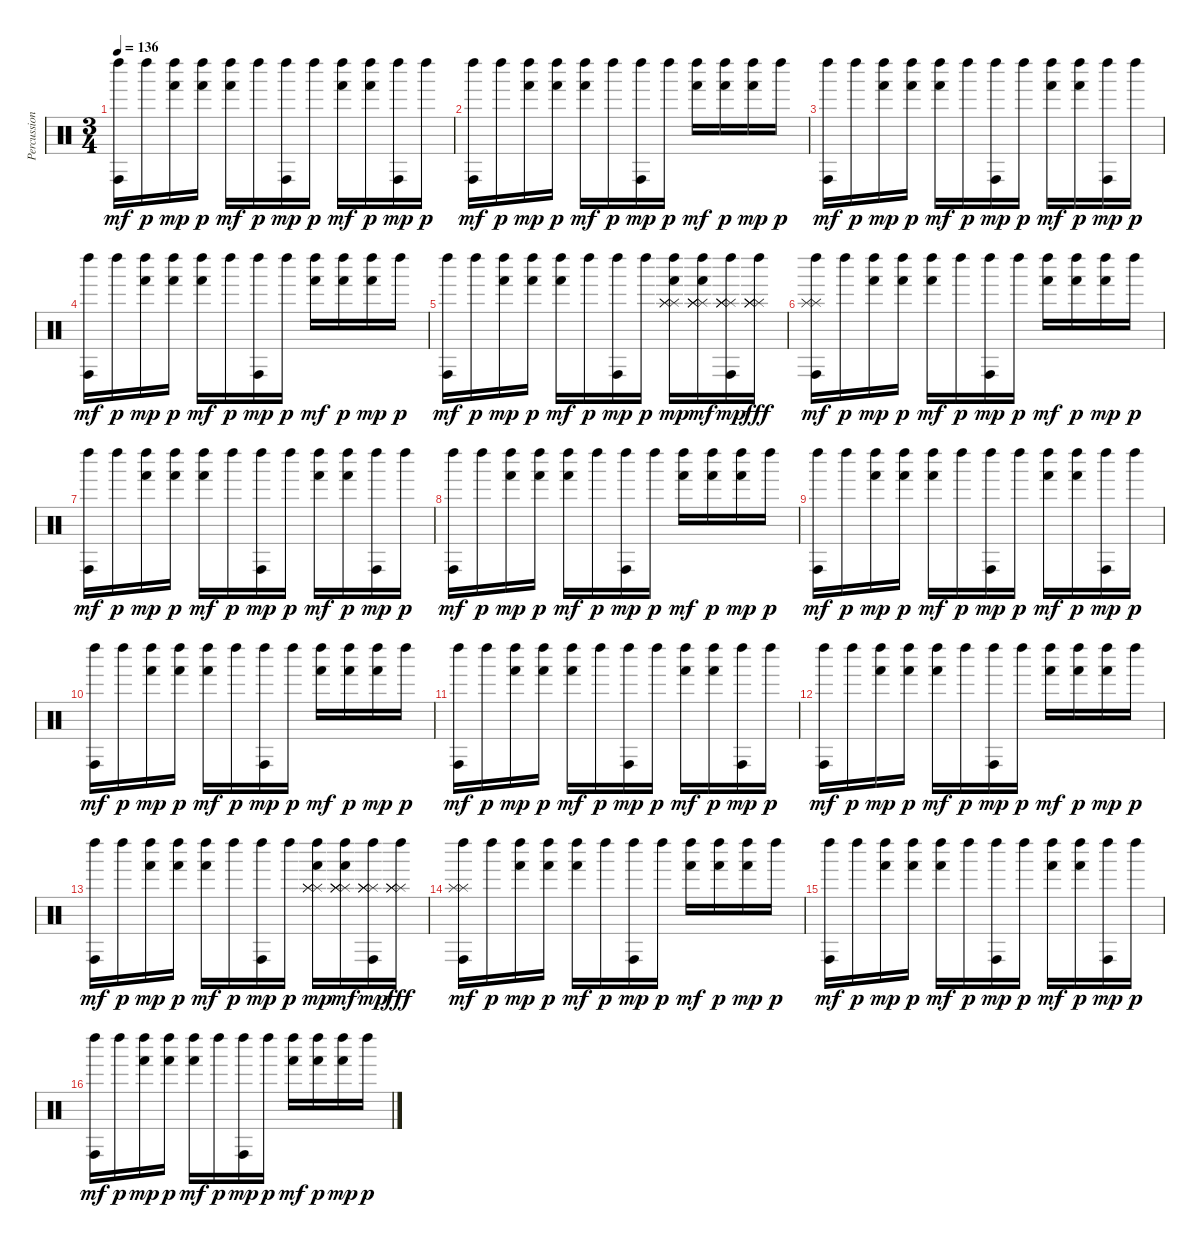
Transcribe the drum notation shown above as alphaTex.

\track ("Percussion" "Percussion") {instrument percussion}
\staff {score}
\articulation defaults
\ts (3 4)
\tempo 136
\clef neutral
\ks c
("Conga high (hit)" "Left Maraca (hit)").16{dy mf} "Left Maraca (hit)".16{dy p} ("Hand (hit)" "Left Maraca (hit)").16{dy mp} ("Hand (hit)" "Left Maraca (hit)").16{dy p} ("Hand (hit)" "Left Maraca (hit)").16{dy mf} "Left Maraca (hit)".16{dy p} ("Conga high (hit)" "Left Maraca (hit)").16{dy mp} "Left Maraca (hit)".16{dy p} ("Hand (hit)" "Left Maraca (hit)").16{dy mf} ("Hand (hit)" "Left Maraca (hit)").16{dy p} ("Conga high (hit)" "Left Maraca (hit)").16{dy mp} "Left Maraca (hit)".16{dy p} |
("Conga high (hit)" "Left Maraca (hit)").16{dy mf} "Left Maraca (hit)".16{dy p} ("Hand (hit)" "Left Maraca (hit)").16{dy mp} ("Hand (hit)" "Left Maraca (hit)").16{dy p} ("Hand (hit)" "Left Maraca (hit)").16{dy mf} "Left Maraca (hit)".16{dy p} ("Conga high (hit)" "Left Maraca (hit)").16{dy mp} "Left Maraca (hit)".16{dy p} ("Hand (hit)" "Left Maraca (hit)").16{dy mf} ("Hand (hit)" "Left Maraca (hit)").16{dy p} ("Hand (hit)" "Left Maraca (hit)").16{dy mp} "Left Maraca (hit)".16{dy p} |
("Conga high (hit)" "Left Maraca (hit)").16{dy mf} "Left Maraca (hit)".16{dy p} ("Hand (hit)" "Left Maraca (hit)").16{dy mp} ("Hand (hit)" "Left Maraca (hit)").16{dy p} ("Hand (hit)" "Left Maraca (hit)").16{dy mf} "Left Maraca (hit)".16{dy p} ("Conga high (hit)" "Left Maraca (hit)").16{dy mp} "Left Maraca (hit)".16{dy p} ("Hand (hit)" "Left Maraca (hit)").16{dy mf} ("Hand (hit)" "Left Maraca (hit)").16{dy p} ("Conga high (hit)" "Left Maraca (hit)").16{dy mp} "Left Maraca (hit)".16{dy p} |
("Conga high (hit)" "Left Maraca (hit)").16{dy mf} "Left Maraca (hit)".16{dy p} ("Hand (hit)" "Left Maraca (hit)").16{dy mp} ("Hand (hit)" "Left Maraca (hit)").16{dy p} ("Hand (hit)" "Left Maraca (hit)").16{dy mf} "Left Maraca (hit)".16{dy p} ("Conga high (hit)" "Left Maraca (hit)").16{dy mp} "Left Maraca (hit)".16{dy p} ("Hand (hit)" "Left Maraca (hit)").16{dy mf} ("Hand (hit)" "Left Maraca (hit)").16{dy p} ("Hand (hit)" "Left Maraca (hit)").16{dy mp} "Left Maraca (hit)".16{dy p} |
("Conga high (hit)" "Left Maraca (hit)").16{dy mf} "Left Maraca (hit)".16{dy p} ("Hand (hit)" "Left Maraca (hit)").16{dy mp} ("Hand (hit)" "Left Maraca (hit)").16{dy p} ("Hand (hit)" "Left Maraca (hit)").16{dy mf} "Left Maraca (hit)".16{dy p} ("Conga high (hit)" "Left Maraca (hit)").16{dy mp} "Left Maraca (hit)".16{dy p} ("Hand (hit)" "Splash (hit)" "Left Maraca (hit)" "Splash (hit)" "Splash (hit)").16{dy mp} ("Splash (hit)" "Hand (hit)" "Splash (hit)" "Left Maraca (hit)" "Splash (hit)" "Splash (hit)").16{dy mf} ("Splash (hit)" "Conga high (hit)" "Splash (hit)" "Left Maraca (hit)" "Splash (hit)" "Splash (hit)").16{dy mp} ("Splash (hit)" "Splash (hit)" "Left Maraca (hit)" "Splash (hit)" "Splash (hit)").16{dy fff} |
("Splash (hit)" "Splash (hit)" "Conga high (hit)" "Left Maraca (hit)").16{dy mf} "Left Maraca (hit)".16{dy p} ("Hand (hit)" "Left Maraca (hit)").16{dy mp} ("Hand (hit)" "Left Maraca (hit)").16{dy p} ("Hand (hit)" "Left Maraca (hit)").16{dy mf} "Left Maraca (hit)".16{dy p} ("Conga high (hit)" "Left Maraca (hit)").16{dy mp} "Left Maraca (hit)".16{dy p} ("Hand (hit)" "Left Maraca (hit)").16{dy mf} ("Hand (hit)" "Left Maraca (hit)").16{dy p} ("Hand (hit)" "Left Maraca (hit)").16{dy mp} "Left Maraca (hit)".16{dy p} |
("Conga high (hit)" "Left Maraca (hit)").16{dy mf} "Left Maraca (hit)".16{dy p} ("Hand (hit)" "Left Maraca (hit)").16{dy mp} ("Hand (hit)" "Left Maraca (hit)").16{dy p} ("Hand (hit)" "Left Maraca (hit)").16{dy mf} "Left Maraca (hit)".16{dy p} ("Conga high (hit)" "Left Maraca (hit)").16{dy mp} "Left Maraca (hit)".16{dy p} ("Hand (hit)" "Left Maraca (hit)").16{dy mf} ("Hand (hit)" "Left Maraca (hit)").16{dy p} ("Conga high (hit)" "Left Maraca (hit)").16{dy mp} "Left Maraca (hit)".16{dy p} |
("Conga high (hit)" "Left Maraca (hit)").16{dy mf} "Left Maraca (hit)".16{dy p} ("Hand (hit)" "Left Maraca (hit)").16{dy mp} ("Hand (hit)" "Left Maraca (hit)").16{dy p} ("Hand (hit)" "Left Maraca (hit)").16{dy mf} "Left Maraca (hit)".16{dy p} ("Conga high (hit)" "Left Maraca (hit)").16{dy mp} "Left Maraca (hit)".16{dy p} ("Hand (hit)" "Left Maraca (hit)").16{dy mf} ("Hand (hit)" "Left Maraca (hit)").16{dy p} ("Hand (hit)" "Left Maraca (hit)").16{dy mp} "Left Maraca (hit)".16{dy p} |
("Conga high (hit)" "Left Maraca (hit)").16{dy mf} "Left Maraca (hit)".16{dy p} ("Hand (hit)" "Left Maraca (hit)").16{dy mp} ("Hand (hit)" "Left Maraca (hit)").16{dy p} ("Hand (hit)" "Left Maraca (hit)").16{dy mf} "Left Maraca (hit)".16{dy p} ("Conga high (hit)" "Left Maraca (hit)").16{dy mp} "Left Maraca (hit)".16{dy p} ("Hand (hit)" "Left Maraca (hit)").16{dy mf} ("Hand (hit)" "Left Maraca (hit)").16{dy p} ("Conga high (hit)" "Left Maraca (hit)").16{dy mp} "Left Maraca (hit)".16{dy p} |
("Conga high (hit)" "Left Maraca (hit)").16{dy mf} "Left Maraca (hit)".16{dy p} ("Hand (hit)" "Left Maraca (hit)").16{dy mp} ("Hand (hit)" "Left Maraca (hit)").16{dy p} ("Hand (hit)" "Left Maraca (hit)").16{dy mf} "Left Maraca (hit)".16{dy p} ("Conga high (hit)" "Left Maraca (hit)").16{dy mp} "Left Maraca (hit)".16{dy p} ("Hand (hit)" "Left Maraca (hit)").16{dy mf} ("Hand (hit)" "Left Maraca (hit)").16{dy p} ("Hand (hit)" "Left Maraca (hit)").16{dy mp} "Left Maraca (hit)".16{dy p} |
("Conga high (hit)" "Left Maraca (hit)").16{dy mf} "Left Maraca (hit)".16{dy p} ("Hand (hit)" "Left Maraca (hit)").16{dy mp} ("Hand (hit)" "Left Maraca (hit)").16{dy p} ("Hand (hit)" "Left Maraca (hit)").16{dy mf} "Left Maraca (hit)".16{dy p} ("Conga high (hit)" "Left Maraca (hit)").16{dy mp} "Left Maraca (hit)".16{dy p} ("Hand (hit)" "Left Maraca (hit)").16{dy mf} ("Hand (hit)" "Left Maraca (hit)").16{dy p} ("Conga high (hit)" "Left Maraca (hit)").16{dy mp} "Left Maraca (hit)".16{dy p} |
("Conga high (hit)" "Left Maraca (hit)").16{dy mf} "Left Maraca (hit)".16{dy p} ("Hand (hit)" "Left Maraca (hit)").16{dy mp} ("Hand (hit)" "Left Maraca (hit)").16{dy p} ("Hand (hit)" "Left Maraca (hit)").16{dy mf} "Left Maraca (hit)".16{dy p} ("Conga high (hit)" "Left Maraca (hit)").16{dy mp} "Left Maraca (hit)".16{dy p} ("Hand (hit)" "Left Maraca (hit)").16{dy mf} ("Hand (hit)" "Left Maraca (hit)").16{dy p} ("Hand (hit)" "Left Maraca (hit)").16{dy mp} "Left Maraca (hit)".16{dy p} |
("Conga high (hit)" "Left Maraca (hit)").16{dy mf} "Left Maraca (hit)".16{dy p} ("Hand (hit)" "Left Maraca (hit)").16{dy mp} ("Hand (hit)" "Left Maraca (hit)").16{dy p} ("Hand (hit)" "Left Maraca (hit)").16{dy mf} "Left Maraca (hit)".16{dy p} ("Conga high (hit)" "Left Maraca (hit)").16{dy mp} "Left Maraca (hit)".16{dy p} ("Hand (hit)" "Splash (hit)" "Left Maraca (hit)" "Splash (hit)" "Splash (hit)").16{dy mp} ("Splash (hit)" "Hand (hit)" "Splash (hit)" "Left Maraca (hit)" "Splash (hit)" "Splash (hit)").16{dy mf} ("Splash (hit)" "Conga high (hit)" "Splash (hit)" "Left Maraca (hit)" "Splash (hit)" "Splash (hit)").16{dy mp} ("Splash (hit)" "Splash (hit)" "Left Maraca (hit)" "Splash (hit)" "Splash (hit)").16{dy fff} |
("Splash (hit)" "Splash (hit)" "Conga high (hit)" "Left Maraca (hit)").16{dy mf} "Left Maraca (hit)".16{dy p} ("Hand (hit)" "Left Maraca (hit)").16{dy mp} ("Hand (hit)" "Left Maraca (hit)").16{dy p} ("Hand (hit)" "Left Maraca (hit)").16{dy mf} "Left Maraca (hit)".16{dy p} ("Conga high (hit)" "Left Maraca (hit)").16{dy mp} "Left Maraca (hit)".16{dy p} ("Hand (hit)" "Left Maraca (hit)").16{dy mf} ("Hand (hit)" "Left Maraca (hit)").16{dy p} ("Hand (hit)" "Left Maraca (hit)").16{dy mp} "Left Maraca (hit)".16{dy p} |
("Conga high (hit)" "Left Maraca (hit)").16{dy mf} "Left Maraca (hit)".16{dy p} ("Hand (hit)" "Left Maraca (hit)").16{dy mp} ("Hand (hit)" "Left Maraca (hit)").16{dy p} ("Hand (hit)" "Left Maraca (hit)").16{dy mf} "Left Maraca (hit)".16{dy p} ("Conga high (hit)" "Left Maraca (hit)").16{dy mp} "Left Maraca (hit)".16{dy p} ("Hand (hit)" "Left Maraca (hit)").16{dy mf} ("Hand (hit)" "Left Maraca (hit)").16{dy p} ("Conga high (hit)" "Left Maraca (hit)").16{dy mp} "Left Maraca (hit)".16{dy p} |
("Conga high (hit)" "Left Maraca (hit)").16{dy mf} "Left Maraca (hit)".16{dy p} ("Hand (hit)" "Left Maraca (hit)").16{dy mp} ("Hand (hit)" "Left Maraca (hit)").16{dy p} ("Hand (hit)" "Left Maraca (hit)").16{dy mf} "Left Maraca (hit)".16{dy p} ("Conga high (hit)" "Left Maraca (hit)").16{dy mp} "Left Maraca (hit)".16{dy p} ("Hand (hit)" "Left Maraca (hit)").16{dy mf} ("Hand (hit)" "Left Maraca (hit)").16{dy p} ("Hand (hit)" "Left Maraca (hit)").16{dy mp} "Left Maraca (hit)".16{dy p}
